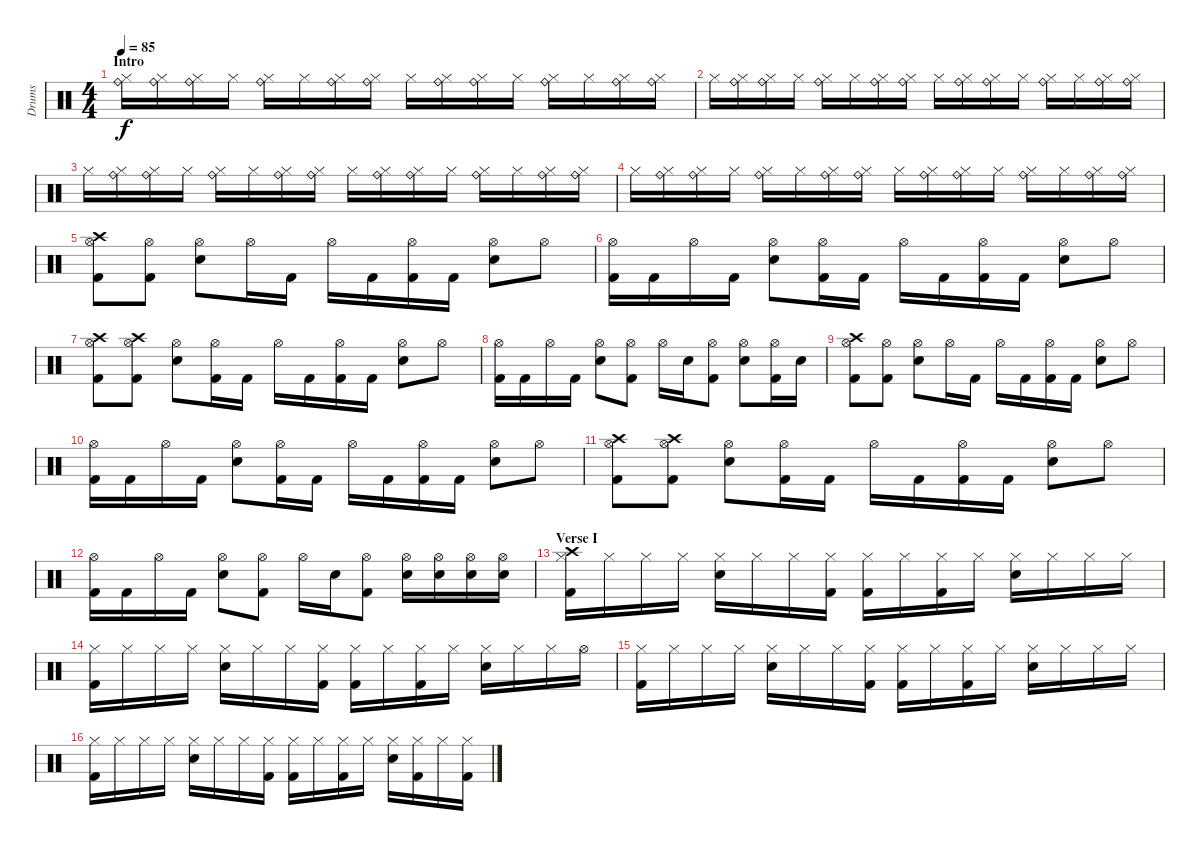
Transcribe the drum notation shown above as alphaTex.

\track ("Drums" "Drums") {instrument percussion}
\staff {score}
\articulation defaults
\ts (4 4)
\section ("" "Intro")
\tempo 85
\clef neutral
\ks c
("Hi-Hat (closed)" "Ride (bell)").16{dy f} ("Hi-Hat (closed)" "Ride (bell)").16 ("Hi-Hat (closed)" "Ride (bell)").16 "Hi-Hat (closed)".16 ("Hi-Hat (closed)" "Ride (bell)").16 "Hi-Hat (closed)".16 ("Hi-Hat (closed)" "Ride (bell)").16 ("Hi-Hat (closed)" "Ride (bell)").16 "Hi-Hat (closed)".16 ("Hi-Hat (closed)" "Ride (bell)").16 ("Hi-Hat (closed)" "Ride (bell)").16 "Hi-Hat (closed)".16 ("Hi-Hat (closed)" "Ride (bell)").16 "Hi-Hat (closed)".16 ("Hi-Hat (closed)" "Ride (bell)").16 ("Hi-Hat (closed)" "Ride (bell)").16 |
"Hi-Hat (closed)".16 ("Hi-Hat (closed)" "Ride (bell)").16 ("Hi-Hat (closed)" "Ride (bell)").16 "Hi-Hat (closed)".16 ("Hi-Hat (closed)" "Ride (bell)").16 "Hi-Hat (closed)".16 ("Hi-Hat (closed)" "Ride (bell)").16 ("Hi-Hat (closed)" "Ride (bell)").16 "Hi-Hat (closed)".16 ("Hi-Hat (closed)" "Ride (bell)").16 ("Hi-Hat (closed)" "Ride (bell)").16 "Hi-Hat (closed)".16 ("Hi-Hat (closed)" "Ride (bell)").16 "Hi-Hat (closed)".16 ("Hi-Hat (closed)" "Ride (bell)").16 ("Hi-Hat (closed)" "Ride (bell)").16 |
"Hi-Hat (closed)".16 ("Hi-Hat (closed)" "Ride (bell)").16 ("Hi-Hat (closed)" "Ride (bell)").16 "Hi-Hat (closed)".16 ("Hi-Hat (closed)" "Ride (bell)").16 "Hi-Hat (closed)".16 ("Hi-Hat (closed)" "Ride (bell)").16 ("Hi-Hat (closed)" "Ride (bell)").16 "Hi-Hat (closed)".16 ("Hi-Hat (closed)" "Ride (bell)").16 ("Hi-Hat (closed)" "Ride (bell)").16 "Hi-Hat (closed)".16 ("Hi-Hat (closed)" "Ride (bell)").16 "Hi-Hat (closed)".16 ("Hi-Hat (closed)" "Ride (bell)").16 ("Hi-Hat (closed)" "Ride (bell)").16 |
"Hi-Hat (closed)".16 ("Hi-Hat (closed)" "Ride (bell)").16 ("Hi-Hat (closed)" "Ride (bell)").16 "Hi-Hat (closed)".16 ("Hi-Hat (closed)" "Ride (bell)").16 "Hi-Hat (closed)".16 ("Hi-Hat (closed)" "Ride (bell)").16 ("Hi-Hat (closed)" "Ride (bell)").16 "Hi-Hat (closed)".16 ("Hi-Hat (closed)" "Ride (bell)").16 ("Hi-Hat (closed)" "Ride (bell)").16 "Hi-Hat (closed)".16 ("Hi-Hat (closed)" "Ride (bell)").16 "Hi-Hat (closed)".16 ("Hi-Hat (closed)" "Ride (bell)").16 ("Hi-Hat (closed)" "Ride (bell)").16 |
("Hi-Hat (open)" "Kick (hit) 2" "Crash high (hit)").8 ("Hi-Hat (open)" "Kick (hit) 2").8 ("Hi-Hat (open)" "Electric Snare (hit)").8 "Hi-Hat (open)".16 "Kick (hit) 2".16 "Hi-Hat (open)".16 "Kick (hit) 2".16 ("Hi-Hat (open)" "Kick (hit) 2").16 "Kick (hit) 2".16 ("Hi-Hat (open)" "Electric Snare (hit)").8 "Hi-Hat (open)".8 |
("Hi-Hat (open)" "Kick (hit) 2").16 "Kick (hit) 2".16 "Hi-Hat (open)".16 "Kick (hit) 2".16 ("Hi-Hat (open)" "Electric Snare (hit)").8 ("Hi-Hat (open)" "Kick (hit) 2").16 "Kick (hit) 2".16 "Hi-Hat (open)".16 "Kick (hit) 2".16 ("Hi-Hat (open)" "Kick (hit) 2").16 "Kick (hit) 2".16 ("Hi-Hat (open)" "Electric Snare (hit)").8 "Hi-Hat (open)".8 |
("Hi-Hat (open)" "Kick (hit) 2" "Crash high (hit)").8 ("Hi-Hat (open)" "Kick (hit) 2" "Crash high (hit)").8 ("Hi-Hat (open)" "Electric Snare (hit)").8 ("Hi-Hat (open)" "Kick (hit) 2").16 "Kick (hit) 2".16 "Hi-Hat (open)".16 "Kick (hit) 2".16 ("Hi-Hat (open)" "Kick (hit) 2").16 "Kick (hit) 2".16 ("Hi-Hat (open)" "Electric Snare (hit)").8 "Hi-Hat (open)".8 |
("Hi-Hat (open)" "Kick (hit) 2").16 "Kick (hit) 2".16 "Hi-Hat (open)".16 "Kick (hit) 2".16 ("Hi-Hat (open)" "Electric Snare (hit)").8 ("Hi-Hat (open)" "Kick (hit) 2").8 "Hi-Hat (open)".16 "Electric Snare (hit)".16 ("Hi-Hat (open)" "Kick (hit) 2").8 ("Hi-Hat (open)" "Electric Snare (hit)").8 ("Hi-Hat (open)" "Kick (hit) 2").16 "Electric Snare (hit)".16 |
("Hi-Hat (open)" "Kick (hit) 2" "Crash high (hit)").8 ("Hi-Hat (open)" "Kick (hit) 2").8 ("Hi-Hat (open)" "Electric Snare (hit)").8 "Hi-Hat (open)".16 "Kick (hit) 2".16 "Hi-Hat (open)".16 "Kick (hit) 2".16 ("Hi-Hat (open)" "Kick (hit) 2").16 "Kick (hit) 2".16 ("Hi-Hat (open)" "Electric Snare (hit)").8 "Hi-Hat (open)".8 |
("Hi-Hat (open)" "Kick (hit) 2").16 "Kick (hit) 2".16 "Hi-Hat (open)".16 "Kick (hit) 2".16 ("Hi-Hat (open)" "Electric Snare (hit)").8 ("Hi-Hat (open)" "Kick (hit) 2").16 "Kick (hit) 2".16 "Hi-Hat (open)".16 "Kick (hit) 2".16 ("Hi-Hat (open)" "Kick (hit) 2").16 "Kick (hit) 2".16 ("Hi-Hat (open)" "Electric Snare (hit)").8 "Hi-Hat (open)".8 |
("Hi-Hat (open)" "Kick (hit) 2" "Crash high (hit)").8 ("Hi-Hat (open)" "Kick (hit) 2" "Crash high (hit)").8 ("Hi-Hat (open)" "Electric Snare (hit)").8 ("Hi-Hat (open)" "Kick (hit) 2").16 "Kick (hit) 2".16 "Hi-Hat (open)".16 "Kick (hit) 2".16 ("Hi-Hat (open)" "Kick (hit) 2").16 "Kick (hit) 2".16 ("Hi-Hat (open)" "Electric Snare (hit)").8 "Hi-Hat (open)".8 |
("Hi-Hat (open)" "Kick (hit) 2").16 "Kick (hit) 2".16 "Hi-Hat (open)".16 "Kick (hit) 2".16 ("Hi-Hat (open)" "Electric Snare (hit)").8 ("Hi-Hat (open)" "Kick (hit) 2").8 "Hi-Hat (open)".16 "Electric Snare (hit)".16 ("Hi-Hat (open)" "Kick (hit) 2").8 ("Hi-Hat (open)" "Electric Snare (hit)").16 ("Hi-Hat (open)" "Electric Snare (hit)").16 ("Hi-Hat (open)" "Electric Snare (hit)").16 ("Hi-Hat (open)" "Electric Snare (hit)").16 |
\section ("" "Verse I")
("Hi-Hat (closed)" "Kick (hit) 2" "Crash high (hit)").16 "Hi-Hat (closed)".16 "Hi-Hat (closed)".16 "Hi-Hat (closed)".16 ("Hi-Hat (closed)" "Electric Snare (hit)").16 "Hi-Hat (closed)".16 "Hi-Hat (closed)".16 ("Hi-Hat (closed)" "Kick (hit) 2").16 ("Hi-Hat (closed)" "Kick (hit) 2").16 "Hi-Hat (closed)".16 ("Hi-Hat (closed)" "Kick (hit) 2").16 "Hi-Hat (closed)".16 ("Hi-Hat (closed)" "Electric Snare (hit)").16 "Hi-Hat (closed)".16 "Hi-Hat (closed)".16 "Hi-Hat (closed)".16 |
("Hi-Hat (closed)" "Kick (hit) 2").16 "Hi-Hat (closed)".16 "Hi-Hat (closed)".16 "Hi-Hat (closed)".16 ("Hi-Hat (closed)" "Electric Snare (hit)").16 "Hi-Hat (closed)".16 "Hi-Hat (closed)".16 ("Hi-Hat (closed)" "Kick (hit) 2").16 ("Hi-Hat (closed)" "Kick (hit) 2").16 "Hi-Hat (closed)".16 ("Hi-Hat (closed)" "Kick (hit) 2").16 "Hi-Hat (closed)".16 ("Hi-Hat (closed)" "Electric Snare (hit)").16 "Hi-Hat (closed)".16 "Hi-Hat (closed)".16 "Hi-Hat (open)".16 |
("Hi-Hat (closed)" "Kick (hit) 2").16 "Hi-Hat (closed)".16 "Hi-Hat (closed)".16 "Hi-Hat (closed)".16 ("Hi-Hat (closed)" "Electric Snare (hit)").16 "Hi-Hat (closed)".16 "Hi-Hat (closed)".16 ("Hi-Hat (closed)" "Kick (hit) 2").16 ("Hi-Hat (closed)" "Kick (hit) 2").16 "Hi-Hat (closed)".16 ("Hi-Hat (closed)" "Kick (hit) 2").16 "Hi-Hat (closed)".16 ("Hi-Hat (closed)" "Electric Snare (hit)").16 "Hi-Hat (closed)".16 "Hi-Hat (closed)".16 "Hi-Hat (closed)".16 |
("Hi-Hat (closed)" "Kick (hit) 2").16 "Hi-Hat (closed)".16 "Hi-Hat (closed)".16 "Hi-Hat (closed)".16 ("Hi-Hat (closed)" "Electric Snare (hit)").16 "Hi-Hat (closed)".16 "Hi-Hat (closed)".16 ("Hi-Hat (closed)" "Kick (hit) 2").16 ("Hi-Hat (closed)" "Kick (hit) 2").16 "Hi-Hat (closed)".16 ("Hi-Hat (closed)" "Kick (hit) 2").16 "Hi-Hat (closed)".16 ("Hi-Hat (closed)" "Electric Snare (hit)").16 ("Hi-Hat (closed)" "Kick (hit) 2").16 "Hi-Hat (closed)".16 ("Hi-Hat (closed)" "Kick (hit) 2").16
